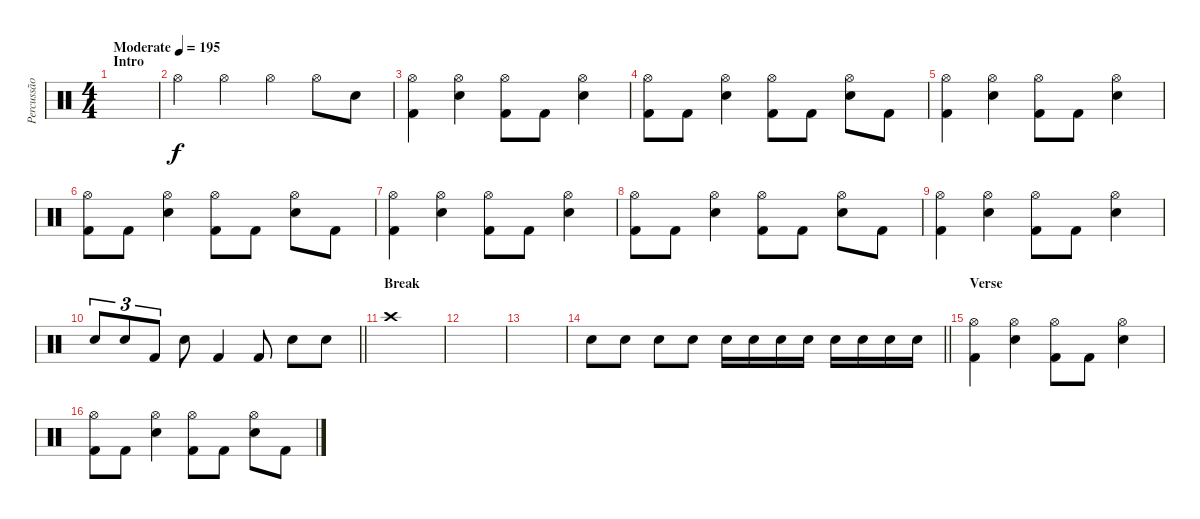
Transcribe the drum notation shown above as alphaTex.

\track ("Percussão" "Percussão") {instrument percussion}
\staff {score}
\articulation defaults
\ts (4 4)
\section ("" "Intro")
\tempo (195 "Moderate")
\clef neutral
\ks c
|
"Hi-Hat (open)".4 "Hi-Hat (open)".4 "Hi-Hat (open)".4 "Hi-Hat (open)".8 "Snare (hit) 2".8 |
("Hi-Hat (open)" "Kick (hit) 2").4 ("Hi-Hat (open)" "Snare (hit) 2").4 ("Hi-Hat (open)" "Kick (hit) 2").8 "Kick (hit) 2".8 ("Hi-Hat (open)" "Snare (hit) 2").4 |
("Hi-Hat (open)" "Kick (hit) 2").8 "Kick (hit) 2".8 ("Hi-Hat (open)" "Snare (hit) 2").4 ("Hi-Hat (open)" "Kick (hit) 2").8 "Kick (hit) 2".8 ("Hi-Hat (open)" "Snare (hit) 2").8 "Kick (hit) 2".8 |
("Hi-Hat (open)" "Kick (hit) 2").4 ("Hi-Hat (open)" "Snare (hit) 2").4 ("Hi-Hat (open)" "Kick (hit) 2").8 "Kick (hit) 2".8 ("Hi-Hat (open)" "Snare (hit) 2").4 |
("Hi-Hat (open)" "Kick (hit) 2").8 "Kick (hit) 2".8 ("Hi-Hat (open)" "Snare (hit) 2").4 ("Hi-Hat (open)" "Kick (hit) 2").8 "Kick (hit) 2".8 ("Hi-Hat (open)" "Snare (hit) 2").8 "Kick (hit) 2".8 |
("Hi-Hat (open)" "Kick (hit) 2").4 ("Hi-Hat (open)" "Snare (hit) 2").4 ("Hi-Hat (open)" "Kick (hit) 2").8 "Kick (hit) 2".8 ("Hi-Hat (open)" "Snare (hit) 2").4 |
("Hi-Hat (open)" "Kick (hit) 2").8 "Kick (hit) 2".8 ("Hi-Hat (open)" "Snare (hit) 2").4 ("Hi-Hat (open)" "Kick (hit) 2").8 "Kick (hit) 2".8 ("Hi-Hat (open)" "Snare (hit) 2").8 "Kick (hit) 2".8 |
("Hi-Hat (open)" "Kick (hit) 2").4 ("Hi-Hat (open)" "Snare (hit) 2").4 ("Hi-Hat (open)" "Kick (hit) 2").8 "Kick (hit) 2".8 ("Hi-Hat (open)" "Snare (hit) 2").4 |
\barLineRight lightlight "Snare (hit) 2".8{tu (3 2)} "Snare (hit) 2".8{tu (3 2)} "Kick (hit) 2".8{tu (3 2)} "Snare (hit) 2".8 "Kick (hit) 2".4 "Kick (hit) 2".8 "Snare (hit) 2".8 "Snare (hit) 2".8
|
\section ("" "Break")
"Crash high (hit)".1 |
|
|
\barLineRight lightlight "Snare (hit) 2".8 "Snare (hit) 2".8 "Snare (hit) 2".8 "Snare (hit) 2".8 "Snare (hit) 2".16 "Snare (hit) 2".16 "Snare (hit) 2".16 "Snare (hit) 2".16 "Snare (hit) 2".16 "Snare (hit) 2".16 "Snare (hit) 2".16 "Snare (hit) 2".16
|
\section ("" "Verse")
("Hi-Hat (open)" "Kick (hit) 2").4 ("Hi-Hat (open)" "Snare (hit) 2").4 ("Hi-Hat (open)" "Kick (hit) 2").8 "Kick (hit) 2".8 ("Hi-Hat (open)" "Snare (hit) 2").4 |
("Hi-Hat (open)" "Kick (hit) 2").8 "Kick (hit) 2".8 ("Hi-Hat (open)" "Snare (hit) 2").4 ("Hi-Hat (open)" "Kick (hit) 2").8 "Kick (hit) 2".8 ("Hi-Hat (open)" "Snare (hit) 2").8 "Kick (hit) 2".8
